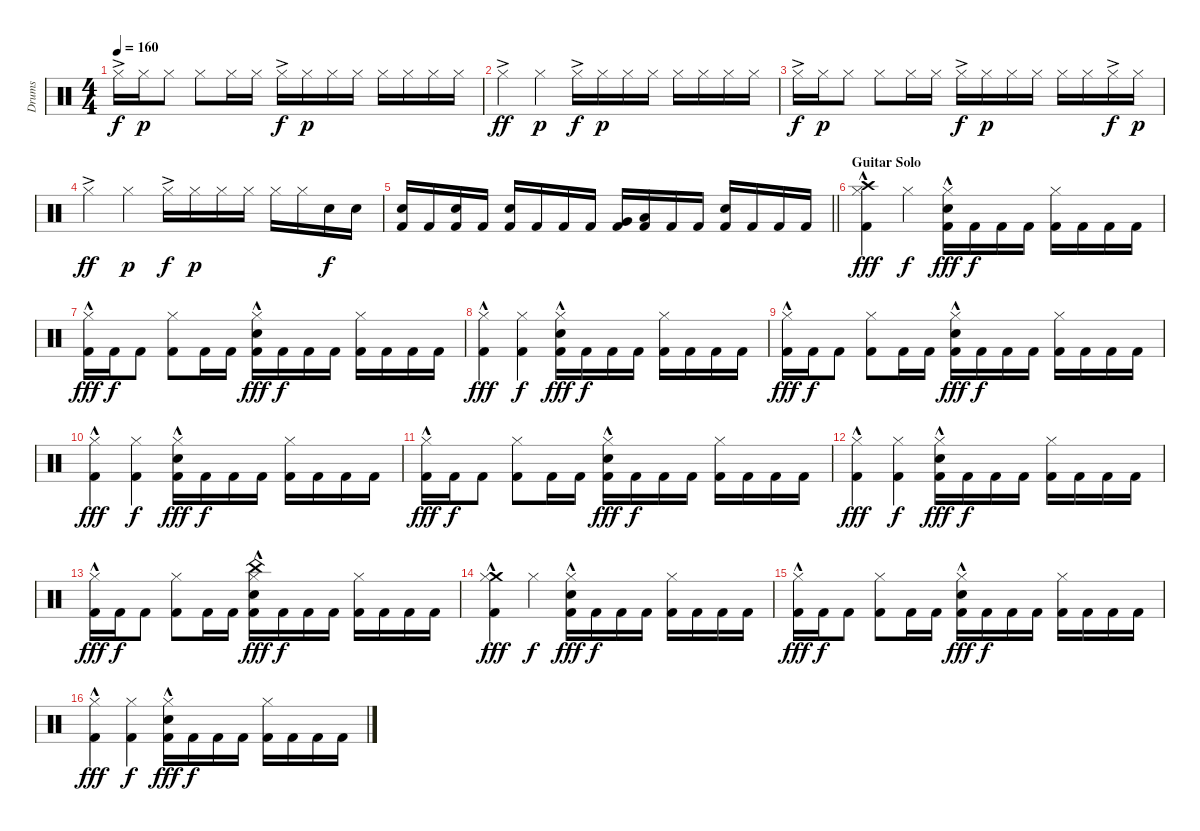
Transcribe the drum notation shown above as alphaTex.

\track ("Drums" "Drums") {instrument percussion}
\staff {score}
\articulation defaults
\ts (4 4)
\tempo 160
\clef neutral
\ks c "Hi-Hat (closed)"{ac}.16{dy f} "Hi-Hat (closed)".16{dy p} "Hi-Hat (closed)".8 "Hi-Hat (closed)".8 "Hi-Hat (closed)".16 "Hi-Hat (closed)".16 "Hi-Hat (closed)"{ac}.16{dy f} "Hi-Hat (closed)".16{dy p} "Hi-Hat (closed)".16 "Hi-Hat (closed)".16 "Hi-Hat (closed)".16 "Hi-Hat (closed)".16 "Hi-Hat (closed)".16 "Hi-Hat (closed)".16
|
"Hi-Hat (closed)"{ac}.4{dy ff} "Hi-Hat (closed)".4{dy p} "Hi-Hat (closed)"{ac}.16{dy f} "Hi-Hat (closed)".16{dy p} "Hi-Hat (closed)".16 "Hi-Hat (closed)".16 "Hi-Hat (closed)".16 "Hi-Hat (closed)".16 "Hi-Hat (closed)".16 "Hi-Hat (closed)".16 |
"Hi-Hat (closed)"{ac}.16{dy f} "Hi-Hat (closed)".16{dy p} "Hi-Hat (closed)".8 "Hi-Hat (closed)".8 "Hi-Hat (closed)".16 "Hi-Hat (closed)".16 "Hi-Hat (closed)"{ac}.16{dy f} "Hi-Hat (closed)".16{dy p} "Hi-Hat (closed)".16 "Hi-Hat (closed)".16 "Hi-Hat (closed)".16 "Hi-Hat (closed)".16 "Hi-Hat (closed)"{ac}.16{dy f} "Hi-Hat (closed)".16{dy p} |
"Hi-Hat (closed)"{ac}.4{dy ff} "Hi-Hat (closed)".4{dy p} "Hi-Hat (closed)"{ac}.16{dy f} "Hi-Hat (closed)".16{dy p} "Hi-Hat (closed)".16 "Hi-Hat (closed)".16 "Hi-Hat (closed)".16 "Hi-Hat (closed)".16 "Snare (hit) 2".16{dy f} "Snare (hit) 2".16 |
\barLineRight lightlight
("Snare (hit) 2" "Kick (hit) 2").16 "Kick (hit) 2".16 ("Snare (hit) 2" "Kick (hit) 2").16 "Kick (hit) 2".16 ("Snare (hit) 2" "Kick (hit) 2").16 "Kick (hit) 2".16 "Kick (hit) 2".16 "Kick (hit) 2".16 ("Very Low Tom (hit)" "Kick (hit) 2").16 ("Low Floor Tom (hit)" "Kick (hit) 2").16 "Kick (hit) 2".16 "Kick (hit) 2".16 ("Snare (hit) 2" "Kick (hit) 2").16 "Kick (hit) 2".16 "Kick (hit) 2".16 "Kick (hit) 2".16 |
\section ("" "Guitar Solo")
("Crash high (hit)" "Hi-Hat (closed)"{hac} "Kick (hit) 2").4{dy fff} "Hi-Hat (closed)".4{dy f} ("Hi-Hat (closed)"{hac} "Snare (hit) 2" "Kick (hit) 2").16{dy fff} "Kick (hit) 2".16{dy f} "Kick (hit) 2".16 "Kick (hit) 2".16 ("Hi-Hat (closed)" "Kick (hit) 2").16 "Kick (hit) 2".16 "Kick (hit) 2".16 "Kick (hit) 2".16 |
("Hi-Hat (closed)"{hac} "Kick (hit) 2").16{dy fff} "Kick (hit) 2".16{dy f} "Kick (hit) 2".8 ("Hi-Hat (closed)" "Kick (hit) 2").8 "Kick (hit) 2".16 "Kick (hit) 2".16 ("Hi-Hat (closed)"{hac} "Snare (hit) 2" "Kick (hit) 2").16{dy fff} "Kick (hit) 2".16{dy f} "Kick (hit) 2".16 "Kick (hit) 2".16 ("Hi-Hat (closed)" "Kick (hit) 2").16 "Kick (hit) 2".16 "Kick (hit) 2".16 "Kick (hit) 2".16 |
("Hi-Hat (closed)"{hac} "Kick (hit) 2").4{dy fff} ("Hi-Hat (closed)" "Kick (hit) 2").4{dy f} ("Hi-Hat (closed)"{hac} "Snare (hit) 2" "Kick (hit) 2").16{dy fff} "Kick (hit) 2".16{dy f} "Kick (hit) 2".16 "Kick (hit) 2".16 ("Hi-Hat (closed)" "Kick (hit) 2").16 "Kick (hit) 2".16 "Kick (hit) 2".16 "Kick (hit) 2".16 |
("Hi-Hat (closed)"{hac} "Kick (hit) 2").16{dy fff} "Kick (hit) 2".16{dy f} "Kick (hit) 2".8 ("Hi-Hat (closed)" "Kick (hit) 2").8 "Kick (hit) 2".16 "Kick (hit) 2".16 ("Hi-Hat (closed)"{hac} "Snare (hit) 2" "Kick (hit) 2").16{dy fff} "Kick (hit) 2".16{dy f} "Kick (hit) 2".16 "Kick (hit) 2".16 ("Hi-Hat (closed)" "Kick (hit) 2").16 "Kick (hit) 2".16 "Kick (hit) 2".16 "Kick (hit) 2".16 |
("Hi-Hat (closed)"{hac} "Kick (hit) 2").4{dy fff} ("Hi-Hat (closed)" "Kick (hit) 2").4{dy f} ("Hi-Hat (closed)"{hac} "Snare (hit) 2" "Kick (hit) 2").16{dy fff} "Kick (hit) 2".16{dy f} "Kick (hit) 2".16 "Kick (hit) 2".16 ("Hi-Hat (closed)" "Kick (hit) 2").16 "Kick (hit) 2".16 "Kick (hit) 2".16 "Kick (hit) 2".16 |
("Hi-Hat (closed)"{hac} "Kick (hit) 2").16{dy fff} "Kick (hit) 2".16{dy f} "Kick (hit) 2".8 ("Hi-Hat (closed)" "Kick (hit) 2").8 "Kick (hit) 2".16 "Kick (hit) 2".16 ("Hi-Hat (closed)"{hac} "Snare (hit) 2" "Kick (hit) 2").16{dy fff} "Kick (hit) 2".16{dy f} "Kick (hit) 2".16 "Kick (hit) 2".16 ("Hi-Hat (closed)" "Kick (hit) 2").16 "Kick (hit) 2".16 "Kick (hit) 2".16 "Kick (hit) 2".16 |
("Hi-Hat (closed)"{hac} "Kick (hit) 2").4{dy fff} ("Hi-Hat (closed)" "Kick (hit) 2").4{dy f} ("Hi-Hat (closed)"{hac} "Snare (hit) 2" "Kick (hit) 2").16{dy fff} "Kick (hit) 2".16{dy f} "Kick (hit) 2".16 "Kick (hit) 2".16 ("Hi-Hat (closed)" "Kick (hit) 2").16 "Kick (hit) 2".16 "Kick (hit) 2".16 "Kick (hit) 2".16 |
("Hi-Hat (closed)"{hac} "Kick (hit) 2").16{dy fff} "Kick (hit) 2".16{dy f} "Kick (hit) 2".8 ("Hi-Hat (closed)" "Kick (hit) 2").8 "Kick (hit) 2".16 "Kick (hit) 2".16 ("China (hit)" "Hi-Hat (closed)"{hac} "Snare (hit) 2"{hac} "Kick (hit) 2").16{dy fff} "Kick (hit) 2".16{dy f} "Kick (hit) 2".16 "Kick (hit) 2".16 ("Hi-Hat (closed)" "Kick (hit) 2").16 "Kick (hit) 2".16 "Kick (hit) 2".16 "Kick (hit) 2".16 |
("Crash medium (hit)" "Hi-Hat (closed)"{hac} "Kick (hit) 2").4{dy fff} "Hi-Hat (closed)".4{dy f} ("Hi-Hat (closed)"{hac} "Snare (hit) 2" "Kick (hit) 2").16{dy fff} "Kick (hit) 2".16{dy f} "Kick (hit) 2".16 "Kick (hit) 2".16 ("Hi-Hat (closed)" "Kick (hit) 2").16 "Kick (hit) 2".16 "Kick (hit) 2".16 "Kick (hit) 2".16 |
("Hi-Hat (closed)"{hac} "Kick (hit) 2").16{dy fff} "Kick (hit) 2".16{dy f} "Kick (hit) 2".8 ("Hi-Hat (closed)" "Kick (hit) 2").8 "Kick (hit) 2".16 "Kick (hit) 2".16 ("Hi-Hat (closed)"{hac} "Snare (hit) 2" "Kick (hit) 2").16{dy fff} "Kick (hit) 2".16{dy f} "Kick (hit) 2".16 "Kick (hit) 2".16 ("Hi-Hat (closed)" "Kick (hit) 2").16 "Kick (hit) 2".16 "Kick (hit) 2".16 "Kick (hit) 2".16 |
("Hi-Hat (closed)"{hac} "Kick (hit) 2").4{dy fff} ("Hi-Hat (closed)" "Kick (hit) 2").4{dy f} ("Hi-Hat (closed)"{hac} "Snare (hit) 2" "Kick (hit) 2").16{dy fff} "Kick (hit) 2".16{dy f} "Kick (hit) 2".16 "Kick (hit) 2".16 ("Hi-Hat (closed)" "Kick (hit) 2").16 "Kick (hit) 2".16 "Kick (hit) 2".16 "Kick (hit) 2".16
